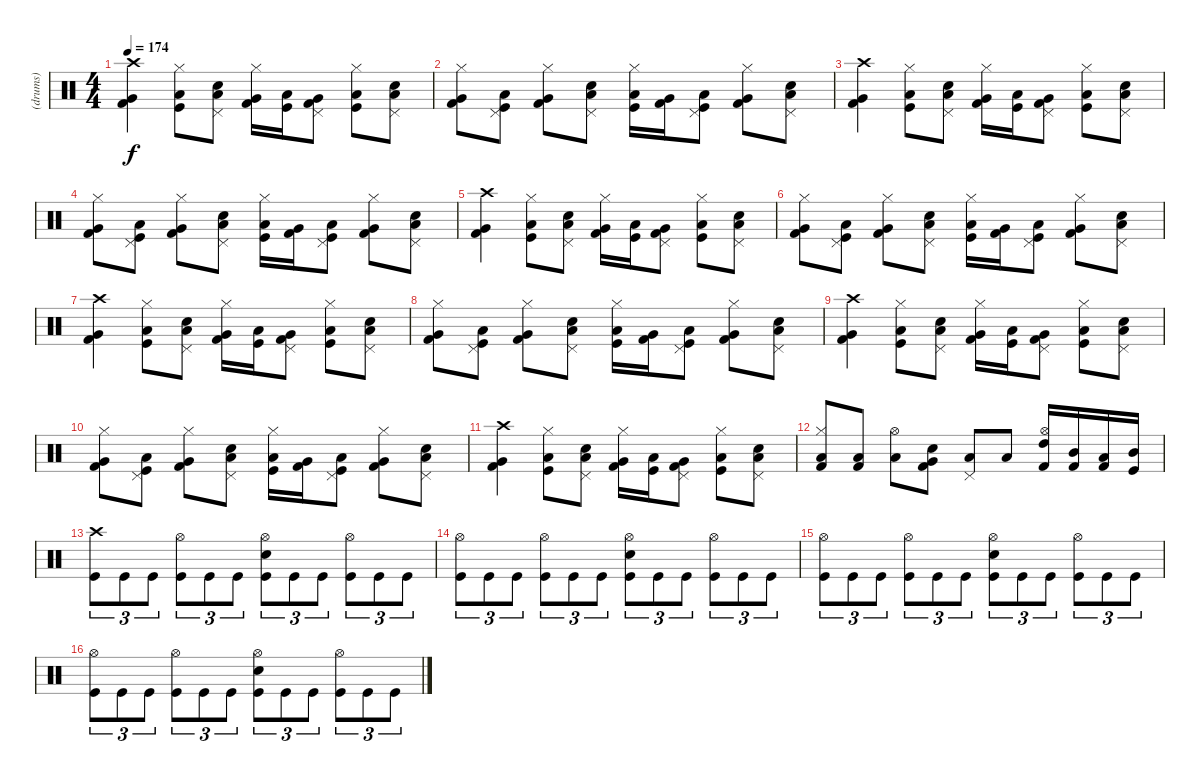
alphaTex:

\track ("(drums)" "(drums)") {instrument percussion}
\staff {score}
\articulation defaults
\ts (4 4)
\tempo 174
\clef neutral
\ks c
("Crash high (hit)" "Kick (hit) 2" "Very Low Tom (hit)").4{dy f} ("Hi-Hat (closed)" "Kick (hit)" "Low Tom (hit)").8 ("Pedal Hi-Hat (hit)" "Snare (hit) 2" "Low Floor Tom (hit)").8 ("Hi-Hat (closed)" "Kick (hit) 2" "Very Low Tom (hit)").16 ("Kick (hit)" "Low Tom (hit)").16 ("Pedal Hi-Hat (hit)" "Kick (hit) 2" "Very Low Tom (hit)").8 ("Hi-Hat (closed)" "Kick (hit)" "Low Tom (hit)").8 ("Pedal Hi-Hat (hit)" "Snare (hit) 2" "Low Floor Tom (hit)").8 |
("Hi-Hat (closed)" "Kick (hit) 2" "Very Low Tom (hit)").8 ("Pedal Hi-Hat (hit)" "Kick (hit)" "Low Tom (hit)").8 ("Hi-Hat (closed)" "Kick (hit) 2" "Very Low Tom (hit)").8 ("Pedal Hi-Hat (hit)" "Snare (hit) 2" "Low Floor Tom (hit)").8 ("Hi-Hat (closed)" "Kick (hit)" "Low Tom (hit)").16 ("Kick (hit) 2" "Very Low Tom (hit)").16 ("Pedal Hi-Hat (hit)" "Kick (hit)" "Low Tom (hit)").8 ("Hi-Hat (closed)" "Kick (hit) 2" "Very Low Tom (hit)").8 ("Pedal Hi-Hat (hit)" "Snare (hit) 2" "Low Floor Tom (hit)").8 |
("Crash high (hit)" "Kick (hit) 2" "Very Low Tom (hit)").4 ("Hi-Hat (closed)" "Kick (hit)" "Low Tom (hit)").8 ("Pedal Hi-Hat (hit)" "Snare (hit) 2" "Low Floor Tom (hit)").8 ("Hi-Hat (closed)" "Kick (hit) 2" "Very Low Tom (hit)").16 ("Kick (hit)" "Low Tom (hit)").16 ("Pedal Hi-Hat (hit)" "Kick (hit) 2" "Very Low Tom (hit)").8 ("Hi-Hat (closed)" "Kick (hit)" "Low Tom (hit)").8 ("Pedal Hi-Hat (hit)" "Snare (hit) 2" "Low Floor Tom (hit)").8 |
("Hi-Hat (closed)" "Kick (hit) 2" "Very Low Tom (hit)").8 ("Pedal Hi-Hat (hit)" "Kick (hit)" "Low Tom (hit)").8 ("Hi-Hat (closed)" "Kick (hit) 2" "Very Low Tom (hit)").8 ("Pedal Hi-Hat (hit)" "Snare (hit) 2" "Low Floor Tom (hit)").8 ("Hi-Hat (closed)" "Kick (hit)" "Low Tom (hit)").16 ("Kick (hit) 2" "Very Low Tom (hit)").16 ("Pedal Hi-Hat (hit)" "Kick (hit)" "Low Tom (hit)").8 ("Hi-Hat (closed)" "Kick (hit) 2" "Very Low Tom (hit)").8 ("Pedal Hi-Hat (hit)" "Snare (hit) 2" "Low Floor Tom (hit)").8 |
("Crash high (hit)" "Kick (hit) 2" "Very Low Tom (hit)").4 ("Hi-Hat (closed)" "Kick (hit)" "Low Tom (hit)").8 ("Pedal Hi-Hat (hit)" "Snare (hit) 2" "Low Floor Tom (hit)").8 ("Hi-Hat (closed)" "Kick (hit) 2" "Very Low Tom (hit)").16 ("Kick (hit)" "Low Tom (hit)").16 ("Pedal Hi-Hat (hit)" "Kick (hit) 2" "Very Low Tom (hit)").8 ("Hi-Hat (closed)" "Kick (hit)" "Low Tom (hit)").8 ("Pedal Hi-Hat (hit)" "Snare (hit) 2" "Low Floor Tom (hit)").8 |
("Hi-Hat (closed)" "Kick (hit) 2" "Very Low Tom (hit)").8 ("Pedal Hi-Hat (hit)" "Kick (hit)" "Low Tom (hit)").8 ("Hi-Hat (closed)" "Kick (hit) 2" "Very Low Tom (hit)").8 ("Pedal Hi-Hat (hit)" "Snare (hit) 2" "Low Floor Tom (hit)").8 ("Hi-Hat (closed)" "Kick (hit)" "Low Tom (hit)").16 ("Kick (hit) 2" "Very Low Tom (hit)").16 ("Pedal Hi-Hat (hit)" "Kick (hit)" "Low Tom (hit)").8 ("Hi-Hat (closed)" "Kick (hit) 2" "Very Low Tom (hit)").8 ("Pedal Hi-Hat (hit)" "Snare (hit) 2" "Low Floor Tom (hit)").8 |
("Crash high (hit)" "Kick (hit) 2" "Very Low Tom (hit)").4 ("Hi-Hat (closed)" "Kick (hit)" "Low Tom (hit)").8 ("Pedal Hi-Hat (hit)" "Snare (hit) 2" "Low Floor Tom (hit)").8 ("Hi-Hat (closed)" "Kick (hit) 2" "Very Low Tom (hit)").16 ("Kick (hit)" "Low Tom (hit)").16 ("Pedal Hi-Hat (hit)" "Kick (hit) 2" "Very Low Tom (hit)").8 ("Hi-Hat (closed)" "Kick (hit)" "Low Tom (hit)").8 ("Pedal Hi-Hat (hit)" "Snare (hit) 2" "Low Floor Tom (hit)").8 |
("Hi-Hat (closed)" "Kick (hit) 2" "Very Low Tom (hit)").8 ("Pedal Hi-Hat (hit)" "Kick (hit)" "Low Tom (hit)").8 ("Hi-Hat (closed)" "Kick (hit) 2" "Very Low Tom (hit)").8 ("Pedal Hi-Hat (hit)" "Snare (hit) 2" "Low Floor Tom (hit)").8 ("Hi-Hat (closed)" "Kick (hit)" "Low Tom (hit)").16 ("Kick (hit) 2" "Very Low Tom (hit)").16 ("Pedal Hi-Hat (hit)" "Kick (hit)" "Low Tom (hit)").8 ("Hi-Hat (closed)" "Kick (hit) 2" "Very Low Tom (hit)").8 ("Pedal Hi-Hat (hit)" "Snare (hit) 2" "Low Floor Tom (hit)").8 |
("Crash high (hit)" "Kick (hit) 2" "Very Low Tom (hit)").4 ("Hi-Hat (closed)" "Kick (hit)" "Low Tom (hit)").8 ("Pedal Hi-Hat (hit)" "Snare (hit) 2" "Low Floor Tom (hit)").8 ("Hi-Hat (closed)" "Kick (hit) 2" "Very Low Tom (hit)").16 ("Kick (hit)" "Low Tom (hit)").16 ("Pedal Hi-Hat (hit)" "Kick (hit) 2" "Very Low Tom (hit)").8 ("Hi-Hat (closed)" "Kick (hit)" "Low Tom (hit)").8 ("Pedal Hi-Hat (hit)" "Snare (hit) 2" "Low Floor Tom (hit)").8 |
("Hi-Hat (closed)" "Kick (hit) 2" "Very Low Tom (hit)").8 ("Pedal Hi-Hat (hit)" "Kick (hit)" "Low Tom (hit)").8 ("Hi-Hat (closed)" "Kick (hit) 2" "Very Low Tom (hit)").8 ("Pedal Hi-Hat (hit)" "Snare (hit) 2" "Low Floor Tom (hit)").8 ("Hi-Hat (closed)" "Kick (hit)" "Low Tom (hit)").16 ("Kick (hit) 2" "Very Low Tom (hit)").16 ("Pedal Hi-Hat (hit)" "Kick (hit)" "Low Tom (hit)").8 ("Hi-Hat (closed)" "Kick (hit) 2" "Very Low Tom (hit)").8 ("Pedal Hi-Hat (hit)" "Snare (hit) 2" "Low Floor Tom (hit)").8 |
("Crash high (hit)" "Kick (hit) 2" "Very Low Tom (hit)").4 ("Hi-Hat (closed)" "Kick (hit)" "Low Tom (hit)").8 ("Pedal Hi-Hat (hit)" "Snare (hit) 2" "Low Floor Tom (hit)").8 ("Hi-Hat (closed)" "Kick (hit) 2" "Very Low Tom (hit)").16 ("Kick (hit)" "Low Tom (hit)").16 ("Pedal Hi-Hat (hit)" "Kick (hit) 2" "Very Low Tom (hit)").8 ("Hi-Hat (closed)" "Kick (hit)" "Low Tom (hit)").8 ("Pedal Hi-Hat (hit)" "Snare (hit) 2" "Low Floor Tom (hit)").8 |
("Hi-Hat (closed)" "Kick (hit) 2" "Low Tom (hit)").8 ("Kick (hit) 2" "Low Tom (hit)").8 ("Hi-Hat (open)" "Low Floor Tom (hit)").8 ("Snare (hit) 2" "Kick (hit) 2" "Very Low Tom (hit)").8 ("Pedal Hi-Hat (hit)" "Low Tom (hit)").8 "Low Floor Tom (hit)".8 ("Hi-Hat (open)" "Kick (hit) 2" "High Tom (hit)").16 ("Kick (hit) 2" "Mid Tom (hit)").16 ("Kick (hit) 2" "Low Tom (hit)").16 ("Kick (hit)" "Mid Tom (hit)").16 |
("Kick (hit)" "Crash high (hit)").8{tu (3 2)} "Kick (hit)".8{tu (3 2)} "Kick (hit)".8{tu (3 2)} ("Kick (hit)" "Hi-Hat (open)").8{tu (3 2)} "Kick (hit)".8{tu (3 2)} "Kick (hit)".8{tu (3 2)} ("Kick (hit)" "Snare (hit) 2" "Hi-Hat (open)").8{tu (3 2)} "Kick (hit)".8{tu (3 2)} "Kick (hit)".8{tu (3 2)} ("Kick (hit)" "Hi-Hat (open)").8{tu (3 2)} "Kick (hit)".8{tu (3 2)} "Kick (hit)".8{tu (3 2)} |
("Kick (hit)" "Hi-Hat (open)").8{tu (3 2)} "Kick (hit)".8{tu (3 2)} "Kick (hit)".8{tu (3 2)} ("Kick (hit)" "Hi-Hat (open)").8{tu (3 2)} "Kick (hit)".8{tu (3 2)} "Kick (hit)".8{tu (3 2)} ("Kick (hit)" "Snare (hit) 2" "Hi-Hat (open)").8{tu (3 2)} "Kick (hit)".8{tu (3 2)} "Kick (hit)".8{tu (3 2)} ("Kick (hit)" "Hi-Hat (open)").8{tu (3 2)} "Kick (hit)".8{tu (3 2)} "Kick (hit)".8{tu (3 2)} |
("Kick (hit)" "Hi-Hat (open)").8{tu (3 2)} "Kick (hit)".8{tu (3 2)} "Kick (hit)".8{tu (3 2)} ("Kick (hit)" "Hi-Hat (open)").8{tu (3 2)} "Kick (hit)".8{tu (3 2)} "Kick (hit)".8{tu (3 2)} ("Kick (hit)" "Snare (hit) 2" "Hi-Hat (open)").8{tu (3 2)} "Kick (hit)".8{tu (3 2)} "Kick (hit)".8{tu (3 2)} ("Kick (hit)" "Hi-Hat (open)").8{tu (3 2)} "Kick (hit)".8{tu (3 2)} "Kick (hit)".8{tu (3 2)} |
("Kick (hit)" "Hi-Hat (open)").8{tu (3 2)} "Kick (hit)".8{tu (3 2)} "Kick (hit)".8{tu (3 2)} ("Kick (hit)" "Hi-Hat (open)").8{tu (3 2)} "Kick (hit)".8{tu (3 2)} "Kick (hit)".8{tu (3 2)} ("Kick (hit)" "Snare (hit) 2" "Hi-Hat (open)").8{tu (3 2)} "Kick (hit)".8{tu (3 2)} "Kick (hit)".8{tu (3 2)} ("Kick (hit)" "Hi-Hat (open)").8{tu (3 2)} "Kick (hit)".8{tu (3 2)} "Kick (hit)".8{tu (3 2)}
